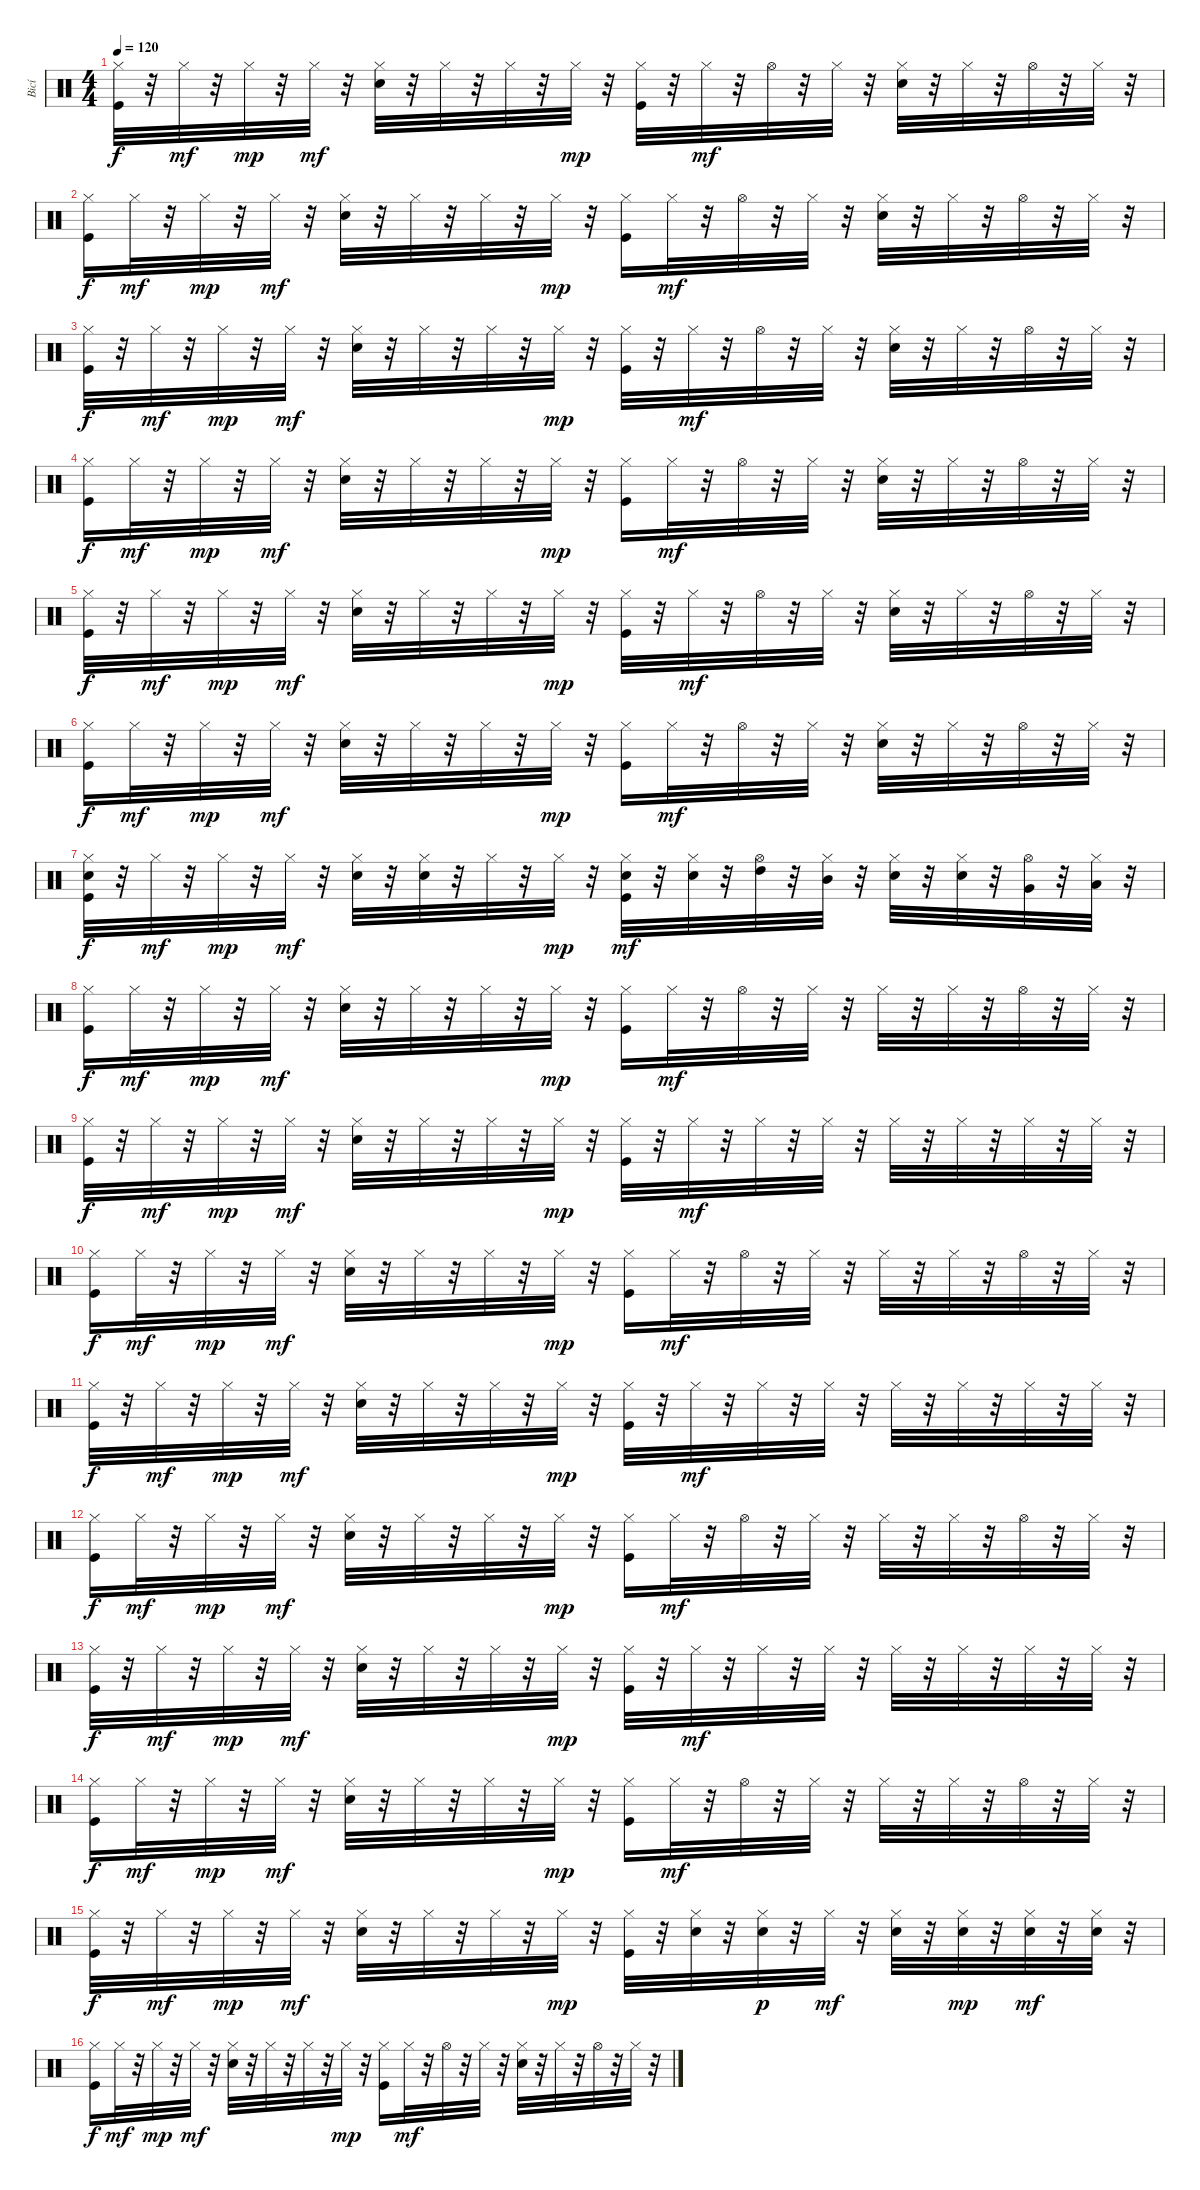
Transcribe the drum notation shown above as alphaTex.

\track ("Bicí" "Bicí") {instrument percussion}
\staff {score}
\articulation defaults
\ts (4 4)
\tempo 120
\clef neutral
\ks c
("Hi-Hat (closed)" "Kick (hit)").32{dy f} r.32 "Hi-Hat (closed)".32{dy mf} r.32 "Hi-Hat (closed)".32{dy mp} r.32 "Hi-Hat (closed)".32{dy mf} r.32 ("Hi-Hat (closed)" "Snare (hit) 2").32 r.32 "Hi-Hat (closed)".32 r.32 "Hi-Hat (closed)".32 r.32 "Hi-Hat (closed)".32{dy mp} r.32 ("Hi-Hat (closed)" "Kick (hit)").32 r.32 "Hi-Hat (closed)".32{dy mf} r.32 "Hi-Hat (open)".32 r.32 "Hi-Hat (closed)".32 r.32 ("Hi-Hat (closed)" "Snare (hit) 2").32 r.32 "Hi-Hat (closed)".32 r.32 "Hi-Hat (open)".32 r.32 "Hi-Hat (closed)".32 r.32 |
("Hi-Hat (closed)" "Kick (hit)").16{dy f} "Hi-Hat (closed)".32{dy mf} r.32 "Hi-Hat (closed)".32{dy mp} r.32 "Hi-Hat (closed)".32{dy mf} r.32 ("Hi-Hat (closed)" "Snare (hit) 2").32 r.32 "Hi-Hat (closed)".32 r.32 "Hi-Hat (closed)".32 r.32 "Hi-Hat (closed)".32{dy mp} r.32 ("Hi-Hat (closed)" "Kick (hit)").16 "Hi-Hat (closed)".32{dy mf} r.32 "Hi-Hat (open)".32 r.32 "Hi-Hat (closed)".32 r.32 ("Hi-Hat (closed)" "Snare (hit) 2").32 r.32 "Hi-Hat (closed)".32 r.32 "Hi-Hat (open)".32 r.32 "Hi-Hat (closed)".32 r.32 |
("Hi-Hat (closed)" "Kick (hit)").32{dy f} r.32 "Hi-Hat (closed)".32{dy mf} r.32 "Hi-Hat (closed)".32{dy mp} r.32 "Hi-Hat (closed)".32{dy mf} r.32 ("Hi-Hat (closed)" "Snare (hit) 2").32 r.32 "Hi-Hat (closed)".32 r.32 "Hi-Hat (closed)".32 r.32 "Hi-Hat (closed)".32{dy mp} r.32 ("Hi-Hat (closed)" "Kick (hit)").32 r.32 "Hi-Hat (closed)".32{dy mf} r.32 "Hi-Hat (open)".32 r.32 "Hi-Hat (closed)".32 r.32 ("Hi-Hat (closed)" "Snare (hit) 2").32 r.32 "Hi-Hat (closed)".32 r.32 "Hi-Hat (open)".32 r.32 "Hi-Hat (closed)".32 r.32 |
("Hi-Hat (closed)" "Kick (hit)").16{dy f} "Hi-Hat (closed)".32{dy mf} r.32 "Hi-Hat (closed)".32{dy mp} r.32 "Hi-Hat (closed)".32{dy mf} r.32 ("Hi-Hat (closed)" "Snare (hit) 2").32 r.32 "Hi-Hat (closed)".32 r.32 "Hi-Hat (closed)".32 r.32 "Hi-Hat (closed)".32{dy mp} r.32 ("Hi-Hat (closed)" "Kick (hit)").16 "Hi-Hat (closed)".32{dy mf} r.32 "Hi-Hat (open)".32 r.32 "Hi-Hat (closed)".32 r.32 ("Hi-Hat (closed)" "Snare (hit) 2").32 r.32 "Hi-Hat (closed)".32 r.32 "Hi-Hat (open)".32 r.32 "Hi-Hat (closed)".32 r.32 |
("Hi-Hat (closed)" "Kick (hit)").32{dy f} r.32 "Hi-Hat (closed)".32{dy mf} r.32 "Hi-Hat (closed)".32{dy mp} r.32 "Hi-Hat (closed)".32{dy mf} r.32 ("Hi-Hat (closed)" "Snare (hit) 2").32 r.32 "Hi-Hat (closed)".32 r.32 "Hi-Hat (closed)".32 r.32 "Hi-Hat (closed)".32{dy mp} r.32 ("Hi-Hat (closed)" "Kick (hit)").32 r.32 "Hi-Hat (closed)".32{dy mf} r.32 "Hi-Hat (open)".32 r.32 "Hi-Hat (closed)".32 r.32 ("Hi-Hat (closed)" "Snare (hit) 2").32 r.32 "Hi-Hat (closed)".32 r.32 "Hi-Hat (open)".32 r.32 "Hi-Hat (closed)".32 r.32 |
("Hi-Hat (closed)" "Kick (hit)").16{dy f} "Hi-Hat (closed)".32{dy mf} r.32 "Hi-Hat (closed)".32{dy mp} r.32 "Hi-Hat (closed)".32{dy mf} r.32 ("Hi-Hat (closed)" "Snare (hit) 2").32 r.32 "Hi-Hat (closed)".32 r.32 "Hi-Hat (closed)".32 r.32 "Hi-Hat (closed)".32{dy mp} r.32 ("Hi-Hat (closed)" "Kick (hit)").16 "Hi-Hat (closed)".32{dy mf} r.32 "Hi-Hat (open)".32 r.32 "Hi-Hat (closed)".32 r.32 ("Hi-Hat (closed)" "Snare (hit) 2").32 r.32 "Hi-Hat (closed)".32 r.32 "Hi-Hat (open)".32 r.32 "Hi-Hat (closed)".32 r.32 |
("Hi-Hat (closed)" "Kick (hit)" "Snare (hit) 2").32{dy f} r.32 "Hi-Hat (closed)".32{dy mf} r.32 "Hi-Hat (closed)".32{dy mp} r.32 "Hi-Hat (closed)".32{dy mf} r.32 ("Hi-Hat (closed)" "Snare (hit) 2").32 r.32 ("Hi-Hat (closed)" "Snare (hit) 2").32 r.32 "Hi-Hat (closed)".32 r.32 "Hi-Hat (closed)".32{dy mp} r.32 ("Hi-Hat (closed)" "Kick (hit)" "Snare (hit) 2").32{dy mf} r.32 ("Hi-Hat (closed)" "Snare (hit) 2").32 r.32 ("Hi-Hat (open)" "High Tom (hit)").32 r.32 ("Hi-Hat (closed)" "Mid Tom (hit)").32 r.32 ("Hi-Hat (closed)" "Snare (hit) 2").32 r.32 ("Hi-Hat (closed)" "Snare (hit) 2").32 r.32 ("Hi-Hat (open)" "Very Low Tom (hit)").32 r.32 ("Hi-Hat (closed)" "Low Floor Tom (hit)").32 r.32 |
("Hi-Hat (closed)" "Kick (hit)").16{dy f} "Hi-Hat (closed)".32{dy mf} r.32 "Hi-Hat (closed)".32{dy mp} r.32 "Hi-Hat (closed)".32{dy mf} r.32 ("Hi-Hat (closed)" "Snare (hit) 2").32 r.32 "Hi-Hat (closed)".32 r.32 "Hi-Hat (closed)".32 r.32 "Hi-Hat (closed)".32{dy mp} r.32 ("Hi-Hat (closed)" "Kick (hit)").16 "Hi-Hat (closed)".32{dy mf} r.32 "Hi-Hat (open)".32 r.32 "Hi-Hat (closed)".32 r.32 "Hi-Hat (closed)".32 r.32 "Hi-Hat (closed)".32 r.32 "Hi-Hat (open)".32 r.32 "Hi-Hat (closed)".32 r.32 |
("Hi-Hat (closed)" "Kick (hit)").32{dy f} r.32 "Hi-Hat (closed)".32{dy mf} r.32 "Hi-Hat (closed)".32{dy mp} r.32 "Hi-Hat (closed)".32{dy mf} r.32 ("Hi-Hat (closed)" "Snare (hit) 2").32 r.32 "Hi-Hat (closed)".32 r.32 "Hi-Hat (closed)".32 r.32 "Hi-Hat (closed)".32{dy mp} r.32 ("Hi-Hat (closed)" "Kick (hit)").32 r.32 "Hi-Hat (closed)".32{dy mf} r.32 "Hi-Hat (closed)".32 r.32 "Hi-Hat (closed)".32 r.32 "Hi-Hat (closed)".32 r.32 "Hi-Hat (closed)".32 r.32 "Hi-Hat (closed)".32 r.32 "Hi-Hat (closed)".32 r.32 |
("Hi-Hat (closed)" "Kick (hit)").16{dy f} "Hi-Hat (closed)".32{dy mf} r.32 "Hi-Hat (closed)".32{dy mp} r.32 "Hi-Hat (closed)".32{dy mf} r.32 ("Hi-Hat (closed)" "Snare (hit) 2").32 r.32 "Hi-Hat (closed)".32 r.32 "Hi-Hat (closed)".32 r.32 "Hi-Hat (closed)".32{dy mp} r.32 ("Hi-Hat (closed)" "Kick (hit)").16 "Hi-Hat (closed)".32{dy mf} r.32 "Hi-Hat (open)".32 r.32 "Hi-Hat (closed)".32 r.32 "Hi-Hat (closed)".32 r.32 "Hi-Hat (closed)".32 r.32 "Hi-Hat (open)".32 r.32 "Hi-Hat (closed)".32 r.32 |
("Hi-Hat (closed)" "Kick (hit)").32{dy f} r.32 "Hi-Hat (closed)".32{dy mf} r.32 "Hi-Hat (closed)".32{dy mp} r.32 "Hi-Hat (closed)".32{dy mf} r.32 ("Hi-Hat (closed)" "Snare (hit) 2").32 r.32 "Hi-Hat (closed)".32 r.32 "Hi-Hat (closed)".32 r.32 "Hi-Hat (closed)".32{dy mp} r.32 ("Hi-Hat (closed)" "Kick (hit)").32 r.32 "Hi-Hat (closed)".32{dy mf} r.32 "Hi-Hat (closed)".32 r.32 "Hi-Hat (closed)".32 r.32 "Hi-Hat (closed)".32 r.32 "Hi-Hat (closed)".32 r.32 "Hi-Hat (closed)".32 r.32 "Hi-Hat (closed)".32 r.32 |
("Hi-Hat (closed)" "Kick (hit)").16{dy f} "Hi-Hat (closed)".32{dy mf} r.32 "Hi-Hat (closed)".32{dy mp} r.32 "Hi-Hat (closed)".32{dy mf} r.32 ("Hi-Hat (closed)" "Snare (hit) 2").32 r.32 "Hi-Hat (closed)".32 r.32 "Hi-Hat (closed)".32 r.32 "Hi-Hat (closed)".32{dy mp} r.32 ("Hi-Hat (closed)" "Kick (hit)").16 "Hi-Hat (closed)".32{dy mf} r.32 "Hi-Hat (open)".32 r.32 "Hi-Hat (closed)".32 r.32 "Hi-Hat (closed)".32 r.32 "Hi-Hat (closed)".32 r.32 "Hi-Hat (open)".32 r.32 "Hi-Hat (closed)".32 r.32 |
("Hi-Hat (closed)" "Kick (hit)").32{dy f} r.32 "Hi-Hat (closed)".32{dy mf} r.32 "Hi-Hat (closed)".32{dy mp} r.32 "Hi-Hat (closed)".32{dy mf} r.32 ("Hi-Hat (closed)" "Snare (hit) 2").32 r.32 "Hi-Hat (closed)".32 r.32 "Hi-Hat (closed)".32 r.32 "Hi-Hat (closed)".32{dy mp} r.32 ("Hi-Hat (closed)" "Kick (hit)").32 r.32 "Hi-Hat (closed)".32{dy mf} r.32 "Hi-Hat (closed)".32 r.32 "Hi-Hat (closed)".32 r.32 "Hi-Hat (closed)".32 r.32 "Hi-Hat (closed)".32 r.32 "Hi-Hat (closed)".32 r.32 "Hi-Hat (closed)".32 r.32 |
("Hi-Hat (closed)" "Kick (hit)").16{dy f} "Hi-Hat (closed)".32{dy mf} r.32 "Hi-Hat (closed)".32{dy mp} r.32 "Hi-Hat (closed)".32{dy mf} r.32 ("Hi-Hat (closed)" "Snare (hit) 2").32 r.32 "Hi-Hat (closed)".32 r.32 "Hi-Hat (closed)".32 r.32 "Hi-Hat (closed)".32{dy mp} r.32 ("Hi-Hat (closed)" "Kick (hit)").16 "Hi-Hat (closed)".32{dy mf} r.32 "Hi-Hat (open)".32 r.32 "Hi-Hat (closed)".32 r.32 "Hi-Hat (closed)".32 r.32 "Hi-Hat (closed)".32 r.32 "Hi-Hat (open)".32 r.32 "Hi-Hat (closed)".32 r.32 |
("Hi-Hat (closed)" "Kick (hit)").32{dy f} r.32 "Hi-Hat (closed)".32{dy mf} r.32 "Hi-Hat (closed)".32{dy mp} r.32 "Hi-Hat (closed)".32{dy mf} r.32 ("Hi-Hat (closed)" "Snare (hit) 2").32 r.32 "Hi-Hat (closed)".32 r.32 "Hi-Hat (closed)".32 r.32 "Hi-Hat (closed)".32{dy mp} r.32 ("Hi-Hat (closed)" "Kick (hit)").32 r.32 ("Hi-Hat (closed)" "Snare (hit) 2").32 r.32 ("Hi-Hat (closed)" "Snare (hit) 2").32{dy p} r.32 "Hi-Hat (closed)".32{dy mf} r.32 ("Hi-Hat (closed)" "Snare (hit) 2").32 r.32 ("Hi-Hat (closed)" "Snare (hit) 2").32{dy mp} r.32 ("Hi-Hat (closed)" "Snare (hit) 2").32{dy mf} r.32 ("Hi-Hat (closed)" "Snare (hit) 2").32 r.32 |
("Hi-Hat (closed)" "Kick (hit)").16{dy f} "Hi-Hat (closed)".32{dy mf} r.32 "Hi-Hat (closed)".32{dy mp} r.32 "Hi-Hat (closed)".32{dy mf} r.32 ("Hi-Hat (closed)" "Snare (hit) 2").32 r.32 "Hi-Hat (closed)".32 r.32 "Hi-Hat (closed)".32 r.32 "Hi-Hat (closed)".32{dy mp} r.32 ("Hi-Hat (closed)" "Kick (hit)").16 "Hi-Hat (closed)".32{dy mf} r.32 "Hi-Hat (open)".32 r.32 "Hi-Hat (closed)".32 r.32 ("Hi-Hat (closed)" "Snare (hit) 2").32 r.32 "Hi-Hat (closed)".32 r.32 "Hi-Hat (open)".32 r.32 "Hi-Hat (closed)".32 r.32
